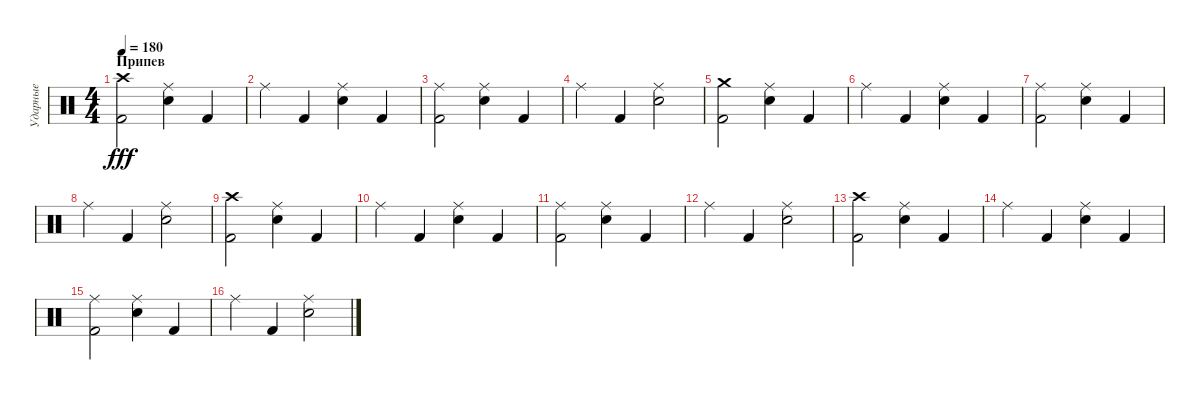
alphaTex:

\track ("Ударные" "Ударные") {instrument percussion}
\staff {score}
\articulation defaults
\ts (4 4)
\section ("" "Припев")
\tempo 180
\clef neutral
\ks c
("Crash high (hit)" "Kick (hit) 2").2{dy fff} ("Ride (middle)" "Snare (hit) 2").4 "Kick (hit) 2".4 |
"Ride (middle)".4 "Kick (hit) 2".4 ("Ride (middle)" "Snare (hit) 2").4 "Kick (hit) 2".4 |
("Ride (middle)" "Kick (hit) 2").2 ("Ride (middle)" "Snare (hit) 2").4 "Kick (hit) 2".4 |
"Ride (middle)".4 "Kick (hit) 2".4 ("Ride (middle)" "Snare (hit) 2").2 |
("Crash medium (hit)" "Kick (hit) 2").2 ("Ride (middle)" "Snare (hit) 2").4 "Kick (hit) 2".4 |
"Ride (middle)".4 "Kick (hit) 2".4 ("Ride (middle)" "Snare (hit) 2").4 "Kick (hit) 2".4 |
("Ride (middle)" "Kick (hit) 2").2 ("Ride (middle)" "Snare (hit) 2").4 "Kick (hit) 2".4 |
"Ride (middle)".4 "Kick (hit) 2".4 ("Ride (middle)" "Snare (hit) 2").2 |
("Crash high (hit)" "Kick (hit) 2").2 ("Ride (middle)" "Snare (hit) 2").4 "Kick (hit) 2".4 |
"Ride (middle)".4 "Kick (hit) 2".4 ("Ride (middle)" "Snare (hit) 2").4 "Kick (hit) 2".4 |
("Ride (middle)" "Kick (hit) 2").2 ("Ride (middle)" "Snare (hit) 2").4 "Kick (hit) 2".4 |
"Ride (middle)".4 "Kick (hit) 2".4 ("Ride (middle)" "Snare (hit) 2").2 |
("Crash high (hit)" "Kick (hit) 2").2 ("Ride (middle)" "Snare (hit) 2").4 "Kick (hit) 2".4 |
"Ride (middle)".4 "Kick (hit) 2".4 ("Ride (middle)" "Snare (hit) 2").4 "Kick (hit) 2".4 |
("Ride (middle)" "Kick (hit) 2").2 ("Ride (middle)" "Snare (hit) 2").4 "Kick (hit) 2".4 |
"Ride (middle)".4 "Kick (hit) 2".4 ("Ride (middle)" "Snare (hit) 2").2
